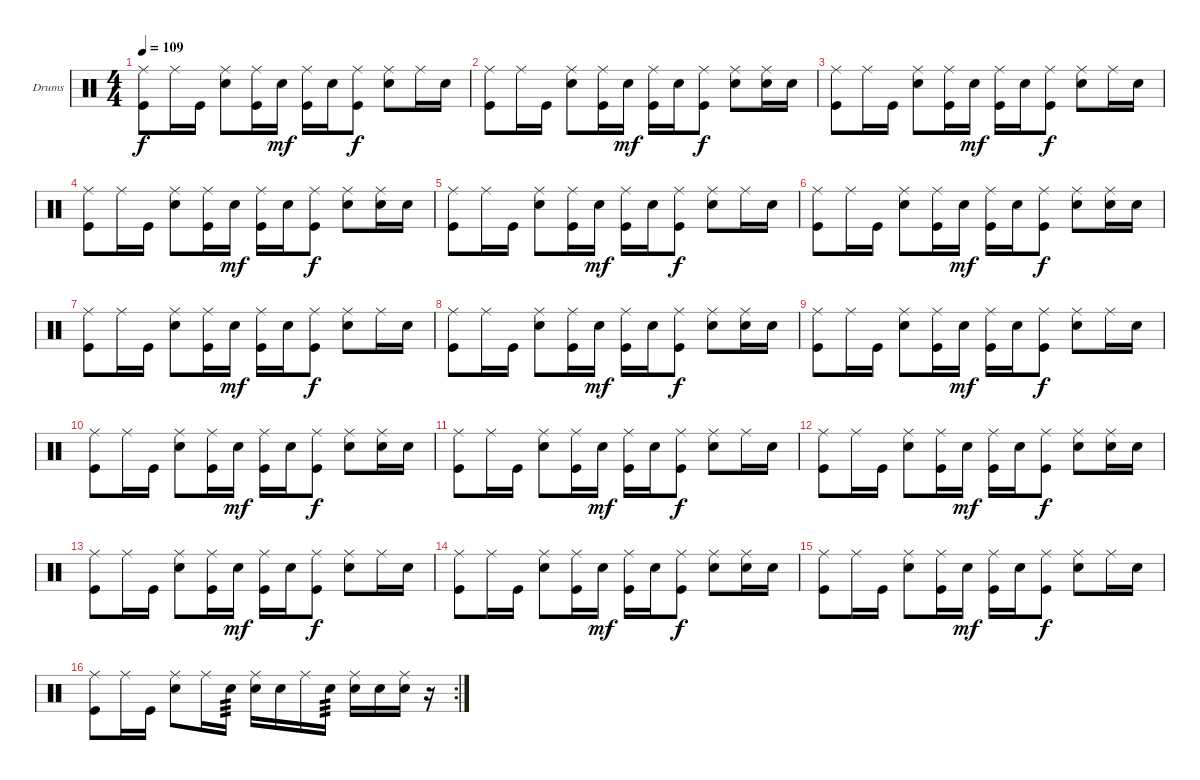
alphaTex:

\bracketExtendMode groupsimilarinstruments
\firstSystemTrackNameOrientation horizontal
\otherSystemsTrackNameOrientation horizontal
\track ("Drumkit" "Drums") {instrument percussion}
\staff {score}
\articulation defaults
\ts (4 4)
\tempo 109
\clef neutral
\ks c
("Kick (hit)" "Ride (middle)").8{dy f} "Ride (middle)".16 "Kick (hit)".16 ("Snare (hit) 2" "Ride (middle)").8 ("Kick (hit)" "Ride (middle)").16 "Snare (hit) 2".16{dy mf} ("Kick (hit)" "Ride (middle)").16 "Snare (hit) 2".16 ("Kick (hit)" "Ride (middle)").8{dy f} ("Snare (hit) 2" "Ride (middle)").8 "Ride (middle)".16 "Snare (hit) 2".16 |
("Kick (hit)" "Ride (middle)").8 "Ride (middle)".16 "Kick (hit)".16 ("Snare (hit) 2" "Ride (middle)").8 ("Kick (hit)" "Ride (middle)").16 "Snare (hit) 2".16{dy mf} ("Kick (hit)" "Ride (middle)").16 "Snare (hit) 2".16 ("Kick (hit)" "Ride (middle)").8{dy f} ("Snare (hit) 2" "Ride (middle)").8 ("Ride (middle)" "Snare (hit) 2").16 "Snare (hit) 2".16 |
("Kick (hit)" "Ride (middle)").8 "Ride (middle)".16 "Kick (hit)".16 ("Snare (hit) 2" "Ride (middle)").8 ("Kick (hit)" "Ride (middle)").16 "Snare (hit) 2".16{dy mf} ("Kick (hit)" "Ride (middle)").16 "Snare (hit) 2".16 ("Kick (hit)" "Ride (middle)").8{dy f} ("Snare (hit) 2" "Ride (middle)").8 "Ride (middle)".16 "Snare (hit) 2".16 |
("Kick (hit)" "Ride (middle)").8 "Ride (middle)".16 "Kick (hit)".16 ("Snare (hit) 2" "Ride (middle)").8 ("Kick (hit)" "Ride (middle)").16 "Snare (hit) 2".16{dy mf} ("Kick (hit)" "Ride (middle)").16 "Snare (hit) 2".16 ("Kick (hit)" "Ride (middle)").8{dy f} ("Snare (hit) 2" "Ride (middle)").8 ("Ride (middle)" "Snare (hit) 2").16 "Snare (hit) 2".16 |
("Kick (hit)" "Ride (middle)").8 "Ride (middle)".16 "Kick (hit)".16 ("Snare (hit) 2" "Ride (middle)").8 ("Kick (hit)" "Ride (middle)").16 "Snare (hit) 2".16{dy mf} ("Kick (hit)" "Ride (middle)").16 "Snare (hit) 2".16 ("Kick (hit)" "Ride (middle)").8{dy f} ("Snare (hit) 2" "Ride (middle)").8 "Ride (middle)".16 "Snare (hit) 2".16 |
("Kick (hit)" "Ride (middle)").8 "Ride (middle)".16 "Kick (hit)".16 ("Snare (hit) 2" "Ride (middle)").8 ("Kick (hit)" "Ride (middle)").16 "Snare (hit) 2".16{dy mf} ("Kick (hit)" "Ride (middle)").16 "Snare (hit) 2".16 ("Kick (hit)" "Ride (middle)").8{dy f} ("Snare (hit) 2" "Ride (middle)").8 ("Ride (middle)" "Snare (hit) 2").16 "Snare (hit) 2".16 |
("Kick (hit)" "Ride (middle)").8 "Ride (middle)".16 "Kick (hit)".16 ("Snare (hit) 2" "Ride (middle)").8 ("Kick (hit)" "Ride (middle)").16 "Snare (hit) 2".16{dy mf} ("Kick (hit)" "Ride (middle)").16 "Snare (hit) 2".16 ("Kick (hit)" "Ride (middle)").8{dy f} ("Snare (hit) 2" "Ride (middle)").8 "Ride (middle)".16 "Snare (hit) 2".16 |
("Kick (hit)" "Ride (middle)").8 "Ride (middle)".16 "Kick (hit)".16 ("Snare (hit) 2" "Ride (middle)").8 ("Kick (hit)" "Ride (middle)").16 "Snare (hit) 2".16{dy mf} ("Kick (hit)" "Ride (middle)").16 "Snare (hit) 2".16 ("Kick (hit)" "Ride (middle)").8{dy f} ("Snare (hit) 2" "Ride (middle)").8 ("Ride (middle)" "Snare (hit) 2").16 "Snare (hit) 2".16 |
("Kick (hit)" "Ride (middle)").8 "Ride (middle)".16 "Kick (hit)".16 ("Snare (hit) 2" "Ride (middle)").8 ("Kick (hit)" "Ride (middle)").16 "Snare (hit) 2".16{dy mf} ("Kick (hit)" "Ride (middle)").16 "Snare (hit) 2".16 ("Kick (hit)" "Ride (middle)").8{dy f} ("Snare (hit) 2" "Ride (middle)").8 "Ride (middle)".16 "Snare (hit) 2".16 |
("Kick (hit)" "Ride (middle)").8 "Ride (middle)".16 "Kick (hit)".16 ("Snare (hit) 2" "Ride (middle)").8 ("Kick (hit)" "Ride (middle)").16 "Snare (hit) 2".16{dy mf} ("Kick (hit)" "Ride (middle)").16 "Snare (hit) 2".16 ("Kick (hit)" "Ride (middle)").8{dy f} ("Snare (hit) 2" "Ride (middle)").8 ("Ride (middle)" "Snare (hit) 2").16 "Snare (hit) 2".16 |
("Kick (hit)" "Ride (middle)").8 "Ride (middle)".16 "Kick (hit)".16 ("Snare (hit) 2" "Ride (middle)").8 ("Kick (hit)" "Ride (middle)").16 "Snare (hit) 2".16{dy mf} ("Kick (hit)" "Ride (middle)").16 "Snare (hit) 2".16 ("Kick (hit)" "Ride (middle)").8{dy f} ("Snare (hit) 2" "Ride (middle)").8 "Ride (middle)".16 "Snare (hit) 2".16 |
("Kick (hit)" "Ride (middle)").8 "Ride (middle)".16 "Kick (hit)".16 ("Snare (hit) 2" "Ride (middle)").8 ("Kick (hit)" "Ride (middle)").16 "Snare (hit) 2".16{dy mf} ("Kick (hit)" "Ride (middle)").16 "Snare (hit) 2".16 ("Kick (hit)" "Ride (middle)").8{dy f} ("Snare (hit) 2" "Ride (middle)").8 ("Ride (middle)" "Snare (hit) 2").16 "Snare (hit) 2".16 |
("Kick (hit)" "Ride (middle)").8 "Ride (middle)".16 "Kick (hit)".16 ("Snare (hit) 2" "Ride (middle)").8 ("Kick (hit)" "Ride (middle)").16 "Snare (hit) 2".16{dy mf} ("Kick (hit)" "Ride (middle)").16 "Snare (hit) 2".16 ("Kick (hit)" "Ride (middle)").8{dy f} ("Snare (hit) 2" "Ride (middle)").8 "Ride (middle)".16 "Snare (hit) 2".16 |
("Kick (hit)" "Ride (middle)").8 "Ride (middle)".16 "Kick (hit)".16 ("Snare (hit) 2" "Ride (middle)").8 ("Kick (hit)" "Ride (middle)").16 "Snare (hit) 2".16{dy mf} ("Kick (hit)" "Ride (middle)").16 "Snare (hit) 2".16 ("Kick (hit)" "Ride (middle)").8{dy f} ("Snare (hit) 2" "Ride (middle)").8 ("Ride (middle)" "Snare (hit) 2").16 "Snare (hit) 2".16 |
("Kick (hit)" "Ride (middle)").8 "Ride (middle)".16 "Kick (hit)".16 ("Snare (hit) 2" "Ride (middle)").8 ("Kick (hit)" "Ride (middle)").16 "Snare (hit) 2".16{dy mf} ("Kick (hit)" "Ride (middle)").16 "Snare (hit) 2".16 ("Kick (hit)" "Ride (middle)").8{dy f} ("Snare (hit) 2" "Ride (middle)").8 "Ride (middle)".16 "Snare (hit) 2".16 |
\rc 2
("Kick (hit)" "Ride (middle)").8 "Ride (middle)".16 "Kick (hit)".16 ("Snare (hit) 2" "Ride (middle)").8 "Ride (middle)".16 "Snare (hit) 2".16{tp 3} ("Snare (hit) 2" "Ride (middle)").16 "Snare (hit) 2".16 "Ride (middle)".16 "Snare (hit) 2".16{tp 3} ("Snare (hit) 2" "Ride (middle)").16 "Snare (hit) 2".16 ("Snare (hit) 2" "Ride (middle)").16 r.16
